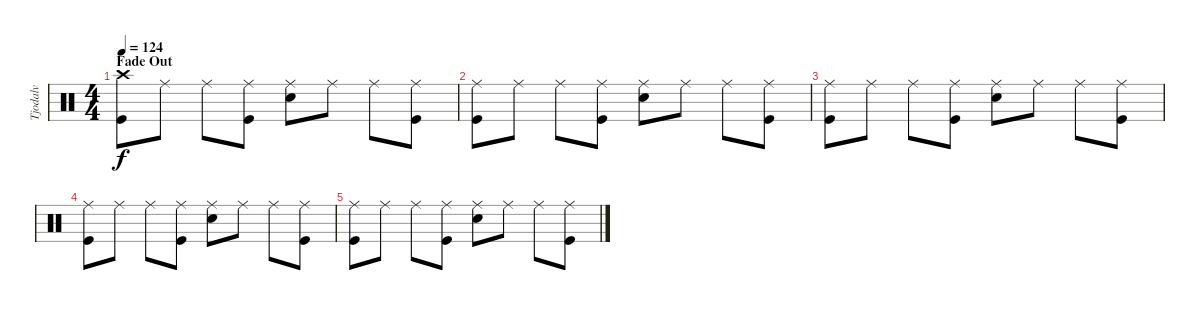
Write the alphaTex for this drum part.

\track ("Tjodalv" "Tjodalv") {instrument percussion}
\staff {score}
\articulation defaults
\ts (4 4)
\section ("" "Fade Out")
\tempo 124
\clef neutral
\ks c
("Crash high (hit)" "Kick (hit)").8{dy f} "Ride (middle)".8 "Ride (middle)".8 ("Kick (hit)" "Ride (middle)").8 ("Ride (middle)" "Snare (hit) 2").8 "Ride (middle)".8 "Ride (middle)".8 ("Kick (hit)" "Ride (middle)").8 |
("Kick (hit)" "Ride (middle)").8 "Ride (middle)".8 "Ride (middle)".8 ("Kick (hit)" "Ride (middle)").8 ("Ride (middle)" "Snare (hit) 2").8 "Ride (middle)".8 "Ride (middle)".8 ("Kick (hit)" "Ride (middle)").8 |
("Kick (hit)" "Ride (middle)").8 "Ride (middle)".8 "Ride (middle)".8 ("Kick (hit)" "Ride (middle)").8 ("Ride (middle)" "Snare (hit) 2").8 "Ride (middle)".8 "Ride (middle)".8 ("Kick (hit)" "Ride (middle)").8 |
("Kick (hit)" "Ride (middle)").8 "Ride (middle)".8 "Ride (middle)".8 ("Kick (hit)" "Ride (middle)").8 ("Ride (middle)" "Snare (hit) 2").8 "Ride (middle)".8 "Ride (middle)".8 ("Kick (hit)" "Ride (middle)").8 |
("Kick (hit)" "Ride (middle)").8 "Ride (middle)".8 "Ride (middle)".8 ("Kick (hit)" "Ride (middle)").8 ("Ride (middle)" "Snare (hit) 2").8 "Ride (middle)".8 "Ride (middle)".8 ("Kick (hit)" "Ride (middle)").8
